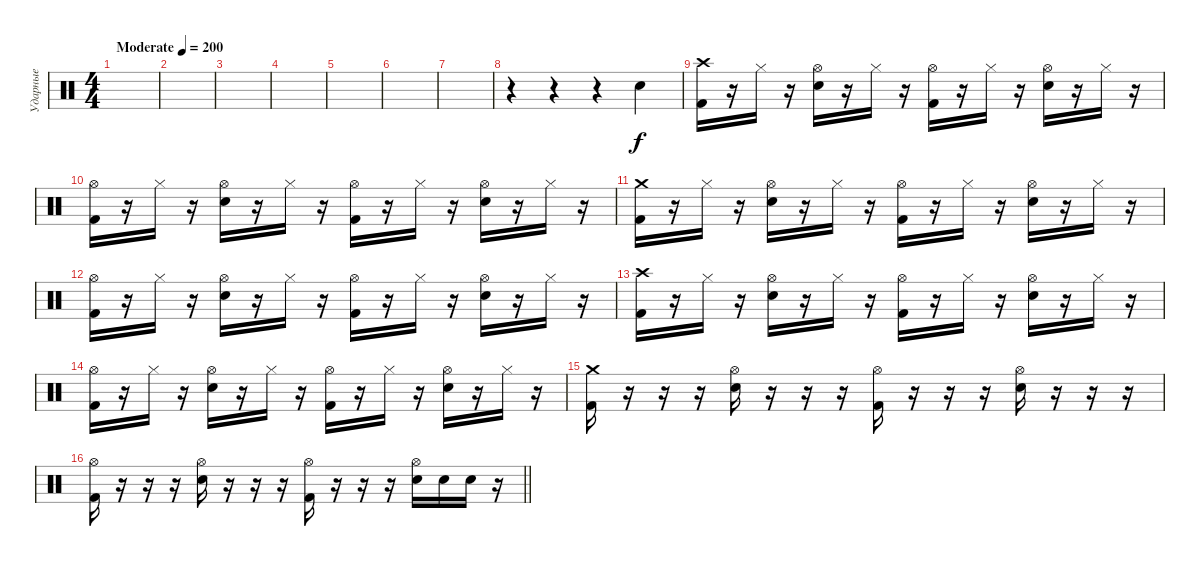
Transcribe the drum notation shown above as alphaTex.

\track ("Ударные" "Ударные") {instrument percussion}
\staff {score}
\articulation defaults
\ts (4 4)
\tempo (200 "Moderate")
\clef neutral
\ks c
|
|
|
|
|
|
|
r.4 r.4 r.4 "Electric Snare (hit)".4 |
("Kick (hit) 2" "Crash high (hit)").16 r.16 "Hi-Hat (closed)".16 r.16 ("Electric Snare (hit)" "Hi-Hat (open)").16 r.16 "Hi-Hat (closed)".16 r.16 ("Kick (hit) 2" "Hi-Hat (open)").16 r.16 "Hi-Hat (closed)".16 r.16 ("Electric Snare (hit)" "Hi-Hat (open)").16 r.16 "Hi-Hat (closed)".16 r.16 |
("Kick (hit) 2" "Hi-Hat (open)").16 r.16 "Hi-Hat (closed)".16 r.16 ("Electric Snare (hit)" "Hi-Hat (open)").16 r.16 "Hi-Hat (closed)".16 r.16 ("Kick (hit) 2" "Hi-Hat (open)").16 r.16 "Hi-Hat (closed)".16 r.16 ("Electric Snare (hit)" "Hi-Hat (open)").16 r.16 "Hi-Hat (closed)".16 r.16 |
("Kick (hit) 2" "Crash medium (hit)").16 r.16 "Hi-Hat (closed)".16 r.16 ("Electric Snare (hit)" "Hi-Hat (open)").16 r.16 "Hi-Hat (closed)".16 r.16 ("Kick (hit) 2" "Hi-Hat (open)").16 r.16 "Hi-Hat (closed)".16 r.16 ("Electric Snare (hit)" "Hi-Hat (open)").16 r.16 "Hi-Hat (closed)".16 r.16 |
("Kick (hit) 2" "Hi-Hat (open)").16 r.16 "Hi-Hat (closed)".16 r.16 ("Electric Snare (hit)" "Hi-Hat (open)").16 r.16 "Hi-Hat (closed)".16 r.16 ("Kick (hit) 2" "Hi-Hat (open)").16 r.16 "Hi-Hat (closed)".16 r.16 ("Electric Snare (hit)" "Hi-Hat (open)").16 r.16 "Hi-Hat (closed)".16 r.16 |
("Kick (hit) 2" "Crash high (hit)").16 r.16 "Hi-Hat (closed)".16 r.16 ("Electric Snare (hit)" "Hi-Hat (open)").16 r.16 "Hi-Hat (closed)".16 r.16 ("Kick (hit) 2" "Hi-Hat (open)").16 r.16 "Hi-Hat (closed)".16 r.16 ("Electric Snare (hit)" "Hi-Hat (open)").16 r.16 "Hi-Hat (closed)".16 r.16 |
("Kick (hit) 2" "Hi-Hat (open)").16 r.16 "Hi-Hat (closed)".16 r.16 ("Electric Snare (hit)" "Hi-Hat (open)").16 r.16 "Hi-Hat (closed)".16 r.16 ("Kick (hit) 2" "Hi-Hat (open)").16 r.16 "Hi-Hat (closed)".16 r.16 ("Electric Snare (hit)" "Hi-Hat (open)").16 r.16 "Hi-Hat (closed)".16 r.16 |
("Kick (hit) 2" "Crash medium (hit)").16 r.16 r.16 r.16 ("Electric Snare (hit)" "Hi-Hat (open)").16 r.16 r.16 r.16 ("Kick (hit) 2" "Hi-Hat (open)").16 r.16 r.16 r.16 ("Electric Snare (hit)" "Hi-Hat (open)").16 r.16 r.16 r.16 |
\barLineRight lightlight
("Kick (hit) 2" "Hi-Hat (open)").16 r.16 r.16 r.16 ("Electric Snare (hit)" "Hi-Hat (open)").16 r.16 r.16 r.16 ("Kick (hit) 2" "Hi-Hat (open)").16 r.16 r.16 r.16 ("Electric Snare (hit)" "Hi-Hat (open)").16 "Electric Snare (hit)".16 "Electric Snare (hit)".16 r.16
